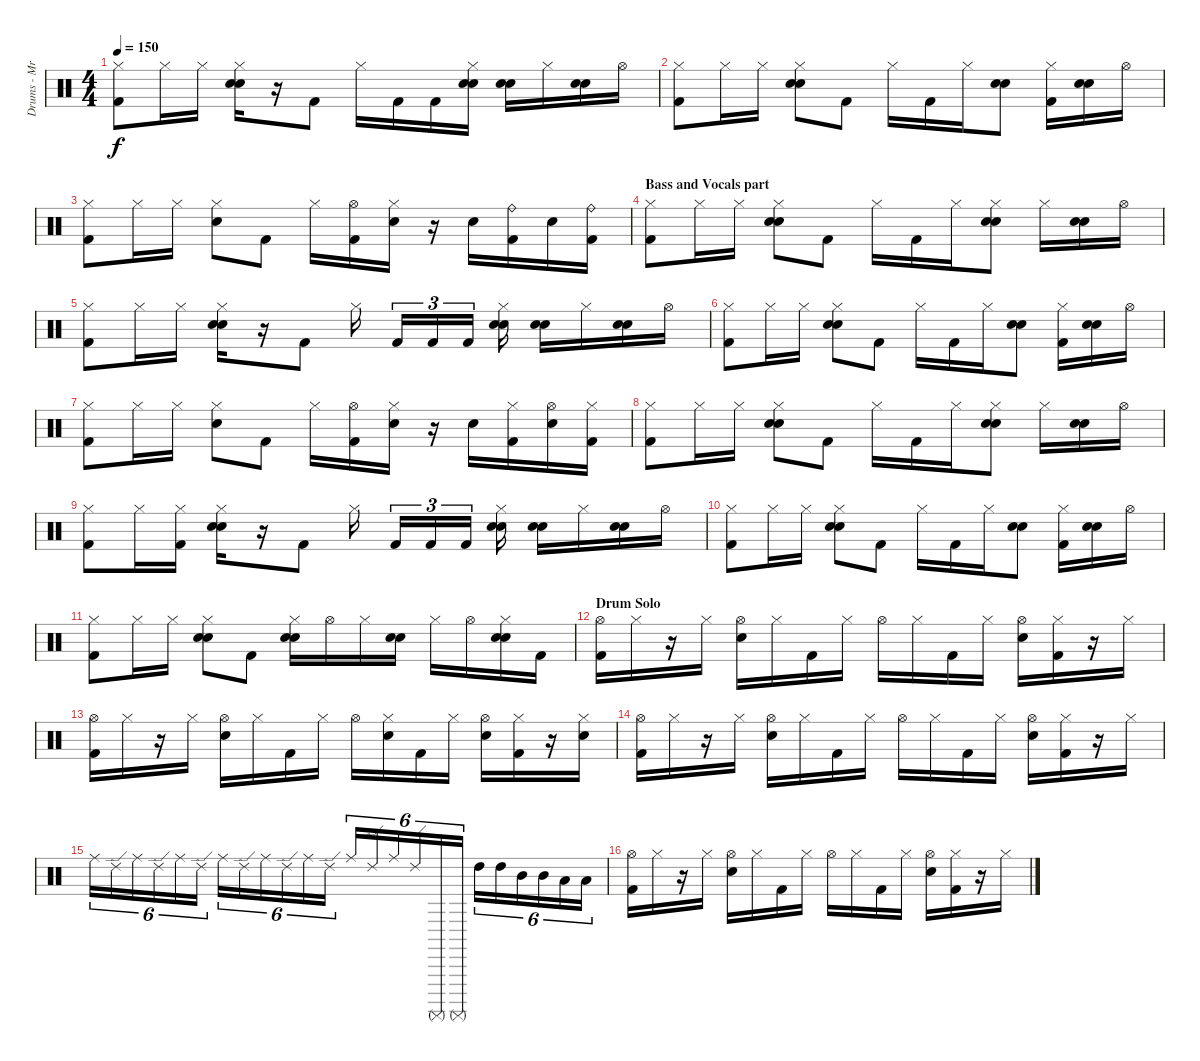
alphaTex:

\track ("Drums - Mr. Beller, Thomas" "Drums - Mr") {instrument percussion}
\staff {score}
\articulation defaults
\ts (4 4)
\tempo 150
\clef neutral
\ks c
("Hi-Hat (closed)" "Kick (hit) 2").8{dy f} "Hi-Hat (closed)".16 "Hi-Hat (closed)".16 ("Hi-Hat (closed)" "Electric Snare (hit)" "Electric Snare (hit)").16 r.16 "Kick (hit) 2".8 "Hi-Hat (closed)".16 "Kick (hit) 2".16 "Kick (hit) 2".16 ("Hi-Hat (closed)" "Electric Snare (hit)" "Electric Snare (hit)").16 ("Electric Snare (hit)" "Electric Snare (hit)").16 "Hi-Hat (closed)".16 ("Electric Snare (hit)" "Electric Snare (hit)").16 "Hi-Hat (open)".16 |
("Hi-Hat (closed)" "Kick (hit) 2").8 "Hi-Hat (closed)".16 "Hi-Hat (closed)".16 ("Hi-Hat (closed)" "Electric Snare (hit)" "Electric Snare (hit)").8 "Kick (hit) 2".8 "Hi-Hat (closed)".16 "Kick (hit) 2".16 "Hi-Hat (closed)".16 ("Electric Snare (hit)" "Electric Snare (hit)").8 ("Hi-Hat (closed)" "Kick (hit) 2").16 ("Electric Snare (hit)" "Electric Snare (hit)").16 "Hi-Hat (open)".16 |
("Hi-Hat (closed)" "Kick (hit) 2").8 "Hi-Hat (closed)".16 "Hi-Hat (closed)".16 ("Hi-Hat (closed)" "Electric Snare (hit)").8 "Kick (hit) 2".8 "Hi-Hat (closed)".16 ("Hi-Hat (open)" "Kick (hit) 2").16 ("Hi-Hat (closed)" "Electric Snare (hit)").16 r.16 "Electric Snare (hit)".16 ("Ride (bell)" "Kick (hit) 2").16 "Electric Snare (hit)".16 ("Ride (bell)" "Kick (hit) 2").16 |
\section ("" "Bass and Vocals part")
("Hi-Hat (closed)" "Kick (hit) 2").8 "Hi-Hat (closed)".16 "Hi-Hat (closed)".16 ("Hi-Hat (closed)" "Electric Snare (hit)" "Electric Snare (hit)").8 "Kick (hit) 2".8 "Hi-Hat (closed)".16 "Kick (hit) 2".16 "Hi-Hat (closed)".16 ("Hi-Hat (closed)" "Electric Snare (hit)" "Electric Snare (hit)").8 "Hi-Hat (closed)".16 ("Electric Snare (hit)" "Electric Snare (hit)").16 "Hi-Hat (open)".16 |
("Hi-Hat (closed)" "Kick (hit) 2").8 "Hi-Hat (closed)".16 "Hi-Hat (closed)".16 ("Hi-Hat (closed)" "Electric Snare (hit)" "Electric Snare (hit)").16 r.16 "Kick (hit) 2".8 "Hi-Hat (closed)".16 "Kick (hit) 2".16{tu (3 2)} "Kick (hit) 2".16{tu (3 2)} "Kick (hit) 2".16{tu (3 2)} ("Hi-Hat (closed)" "Electric Snare (hit)" "Electric Snare (hit)").16 ("Electric Snare (hit)" "Electric Snare (hit)").16 "Hi-Hat (closed)".16 ("Electric Snare (hit)" "Electric Snare (hit)").16 "Hi-Hat (open)".16 |
("Hi-Hat (closed)" "Kick (hit) 2").8 "Hi-Hat (closed)".16 "Hi-Hat (closed)".16 ("Hi-Hat (closed)" "Electric Snare (hit)" "Electric Snare (hit)").8 "Kick (hit) 2".8 "Hi-Hat (closed)".16 "Kick (hit) 2".16 "Hi-Hat (closed)".16 ("Electric Snare (hit)" "Electric Snare (hit)").8 ("Hi-Hat (closed)" "Kick (hit) 2").16 ("Electric Snare (hit)" "Electric Snare (hit)").16 "Hi-Hat (open)".16 |
("Hi-Hat (closed)" "Kick (hit) 2").8 "Hi-Hat (closed)".16 "Hi-Hat (closed)".16 ("Hi-Hat (closed)" "Electric Snare (hit)").8 "Kick (hit) 2".8 "Hi-Hat (closed)".16 ("Hi-Hat (open)" "Kick (hit) 2").16 ("Hi-Hat (closed)" "Electric Snare (hit)").16 r.16 "Electric Snare (hit)".16 ("Hi-Hat (closed)" "Kick (hit) 2").16 ("Hi-Hat (open)" "Electric Snare (hit)").16 ("Hi-Hat (closed)" "Kick (hit) 2").16 |
("Hi-Hat (closed)" "Kick (hit) 2").8 "Hi-Hat (closed)".16 "Hi-Hat (closed)".16 ("Hi-Hat (closed)" "Electric Snare (hit)" "Electric Snare (hit)").8 "Kick (hit) 2".8 "Hi-Hat (closed)".16 "Kick (hit) 2".16 "Hi-Hat (closed)".16 ("Hi-Hat (closed)" "Electric Snare (hit)" "Electric Snare (hit)").8 "Hi-Hat (closed)".16 ("Electric Snare (hit)" "Electric Snare (hit)").16 "Hi-Hat (open)".16 |
("Hi-Hat (closed)" "Kick (hit) 2").8 "Hi-Hat (closed)".16 ("Hi-Hat (closed)" "Kick (hit) 2").16 ("Hi-Hat (closed)" "Electric Snare (hit)" "Electric Snare (hit)").16 r.16 "Kick (hit) 2".8 "Hi-Hat (closed)".16 "Kick (hit) 2".16{tu (3 2)} "Kick (hit) 2".16{tu (3 2)} "Kick (hit) 2".16{tu (3 2)} ("Hi-Hat (closed)" "Electric Snare (hit)" "Electric Snare (hit)").16 ("Electric Snare (hit)" "Electric Snare (hit)").16 "Hi-Hat (closed)".16 ("Electric Snare (hit)" "Electric Snare (hit)").16 "Hi-Hat (open)".16 |
("Hi-Hat (closed)" "Kick (hit) 2").8 "Hi-Hat (closed)".16 "Hi-Hat (closed)".16 ("Hi-Hat (closed)" "Electric Snare (hit)" "Electric Snare (hit)").8 "Kick (hit) 2".8 "Hi-Hat (closed)".16 "Kick (hit) 2".16 "Hi-Hat (closed)".16 ("Electric Snare (hit)" "Electric Snare (hit)").8 ("Hi-Hat (closed)" "Kick (hit) 2").16 ("Electric Snare (hit)" "Electric Snare (hit)").16 "Hi-Hat (open)".16 |
("Hi-Hat (closed)" "Kick (hit) 2").8 "Hi-Hat (closed)".16 "Hi-Hat (closed)".16 ("Hi-Hat (closed)" "Electric Snare (hit)" "Electric Snare (hit)").8 "Kick (hit) 2".8 ("Hi-Hat (closed)" "Electric Snare (hit)" "Electric Snare (hit)").16 "Hi-Hat (open)".16 "Hi-Hat (closed)".16 ("Electric Snare (hit)" "Electric Snare (hit)").16 "Hi-Hat (closed)".16 "Hi-Hat (open)".16 ("Hi-Hat (closed)" "Electric Snare (hit)" "Electric Snare (hit)").16 "Kick (hit) 2".16 |
\section ("" "Drum Solo")
("Hi-Hat (open)" "Kick (hit) 2").16 "Hi-Hat (closed)".16 r.16 "Hi-Hat (closed)".16 ("Hi-Hat (open)" "Electric Snare (hit)").16 "Hi-Hat (closed)".16 "Kick (hit) 2".16 "Hi-Hat (closed)".16 "Hi-Hat (open)".16 "Hi-Hat (closed)".16 "Kick (hit) 2".16 "Hi-Hat (closed)".16 ("Hi-Hat (open)" "Electric Snare (hit)").16 ("Hi-Hat (closed)" "Kick (hit) 2").16 r.16 "Hi-Hat (closed)".16 |
("Hi-Hat (open)" "Kick (hit) 2").16 "Hi-Hat (closed)".16 r.16 "Hi-Hat (closed)".16 ("Hi-Hat (open)" "Electric Snare (hit)").16 "Hi-Hat (closed)".16 "Kick (hit) 2".16 "Hi-Hat (closed)".16 "Hi-Hat (open)".16 ("Hi-Hat (closed)" "Electric Snare (hit)").16 "Kick (hit) 2".16 "Hi-Hat (closed)".16 ("Hi-Hat (open)" "Electric Snare (hit)").16 ("Hi-Hat (closed)" "Kick (hit) 2").16 r.16 ("Hi-Hat (closed)" "Electric Snare (hit)").16 |
("Hi-Hat (open)" "Kick (hit) 2").16 "Hi-Hat (closed)".16 r.16 "Hi-Hat (closed)".16 ("Hi-Hat (open)" "Electric Snare (hit)").16 "Hi-Hat (closed)".16 "Kick (hit) 2".16 "Hi-Hat (closed)".16 "Hi-Hat (open)".16 "Hi-Hat (closed)".16 "Kick (hit) 2".16 "Hi-Hat (closed)".16 ("Hi-Hat (open)" "Electric Snare (hit)").16 ("Hi-Hat (closed)" "Kick (hit) 2").16 r.16 "Hi-Hat (closed)".16 |
"Ride (middle)".16{tu (6 4)} "Ride (edge) 2".16{tu (6 4)} "Ride (middle)".16{tu (6 4)} "Ride (edge) 2".16{tu (6 4)} "Ride (middle)".16{tu (6 4)} "Ride (edge) 2".16{tu (6 4)} "Ride (middle)".16{tu (6 4)} "Ride (edge) 2".16{tu (6 4)} "Ride (middle)".16{tu (6 4)} "Ride (edge) 2".16{tu (6 4)} "Ride (middle)".16{tu (6 4)} "Ride (edge) 2".16{tu (6 4)} "Ride (middle)".16{tu (6 4)} "Ride (edge) 2".16{tu (6 4)} "Ride (middle)".16{tu (6 4)} "Ride (edge) 2".16{tu (6 4)} "Surdo (mute)".16{tu (6 4)} "Surdo (mute)".16{tu (6 4)} "High Tom (hit)".16{tu (6 4)} "High Tom (hit)".16{tu (6 4)} "Mid Tom (hit)".16{tu (6 4)} "Mid Tom (hit)".16{tu (6 4)} "Low Tom (hit)".16{tu (6 4)} "Low Tom (hit)".16{tu (6 4)} |
("Hi-Hat (open)" "Kick (hit) 2").16 "Hi-Hat (closed)".16 r.16 "Hi-Hat (closed)".16 ("Hi-Hat (open)" "Electric Snare (hit)").16 "Hi-Hat (closed)".16 "Kick (hit) 2".16 "Hi-Hat (closed)".16 "Hi-Hat (open)".16 "Hi-Hat (closed)".16 "Kick (hit) 2".16 "Hi-Hat (closed)".16 ("Hi-Hat (open)" "Electric Snare (hit)").16 ("Hi-Hat (closed)" "Kick (hit) 2").16 r.16 "Hi-Hat (closed)".16
